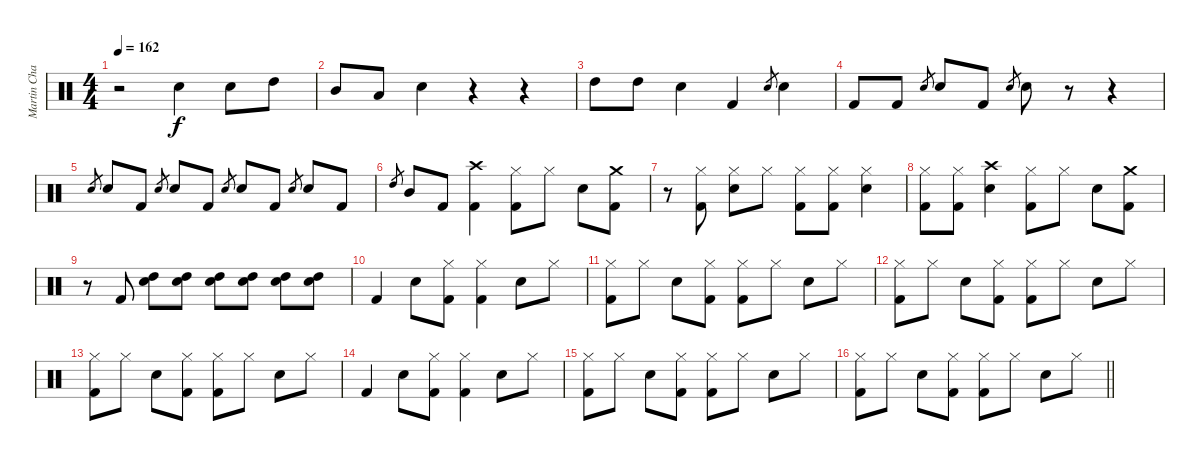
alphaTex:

\track ("Martin Chambers" "Martin Cha") {instrument percussion}
\staff {score}
\articulation defaults
\ts (4 4)
\tempo 162
\clef neutral
\ks c
r.2{dy f} "Snare (hit) 2".4 "Snare (hit) 2".8 "High Tom (hit)".8 |
"Mid Tom (hit)".8 "Low Tom (hit)".8 "Snare (hit) 2".4 r.4 r.4 |
"High Tom (hit)".8 "High Tom (hit)".8 "Snare (hit) 2".4 "Kick (hit) 2".4 "Snare (hit) 2".8{gr} "Snare (hit) 2".4 |
"Kick (hit) 2".8 "Kick (hit) 2".8 "Snare (hit) 2".8{gr} "Snare (hit) 2".8 "Kick (hit) 2".8 "Snare (hit) 2".8{gr} "Snare (hit) 2".8 r.8 r.4 |
"Snare (hit) 2".8{gr} "Snare (hit) 2".8 "Kick (hit) 2".8 "Snare (hit) 2".8{gr} "Snare (hit) 2".8 "Kick (hit) 2".8 "Snare (hit) 2".8{gr} "Snare (hit) 2".8 "Kick (hit) 2".8 "Snare (hit) 2".8{gr} "Snare (hit) 2".8 "Kick (hit) 2".8 |
"High Tom (hit)".8{gr} "Mid Tom (hit)".8 "Kick (hit) 2".8 ("Crash high (hit)" "Kick (hit) 2").4 ("Hi-Hat (closed)" "Kick (hit) 2").8 "Hi-Hat (closed)".8 "Snare (hit) 2".8 ("Crash medium (hit)" "Kick (hit) 2").8 |
r.8 ("Hi-Hat (closed)" "Kick (hit) 2").8 ("Hi-Hat (closed)" "Snare (hit) 2").8 "Hi-Hat (closed)".8 ("Hi-Hat (closed)" "Kick (hit) 2").8 ("Hi-Hat (closed)" "Kick (hit) 2").8 ("Hi-Hat (closed)" "Snare (hit) 2").4 |
("Hi-Hat (closed)" "Kick (hit) 2").8 ("Hi-Hat (closed)" "Kick (hit) 2").8 ("Crash high (hit)" "Snare (hit) 2").4 ("Hi-Hat (closed)" "Kick (hit) 2").8 "Hi-Hat (closed)".8 "Snare (hit) 2".8 ("Crash medium (hit)" "Kick (hit) 2").8 |
r.8 "Kick (hit) 2".8 ("High Tom (hit)" "Snare (hit) 2").8 ("High Tom (hit)" "Snare (hit) 2").8 ("High Tom (hit)" "Snare (hit) 2").8 ("High Tom (hit)" "Snare (hit) 2").8 ("High Tom (hit)" "Snare (hit) 2").8 ("High Tom (hit)" "Snare (hit) 2").8 |
"Kick (hit) 2".4 "Snare (hit) 2".8 ("Hi-Hat (closed)" "Kick (hit) 2").8 ("Hi-Hat (closed)" "Kick (hit) 2").4 "Snare (hit) 2".8 "Hi-Hat (closed)".8 |
("Hi-Hat (closed)" "Kick (hit) 2").8 "Hi-Hat (closed)".8 "Snare (hit) 2".8 ("Hi-Hat (closed)" "Kick (hit) 2").8 ("Hi-Hat (closed)" "Kick (hit) 2").8 "Hi-Hat (closed)".8 "Snare (hit) 2".8 "Hi-Hat (closed)".8 |
("Hi-Hat (closed)" "Kick (hit) 2").8 "Hi-Hat (closed)".8 "Snare (hit) 2".8 ("Hi-Hat (closed)" "Kick (hit) 2").8 ("Hi-Hat (closed)" "Kick (hit) 2").8 "Hi-Hat (closed)".8 "Snare (hit) 2".8 "Hi-Hat (closed)".8 |
("Hi-Hat (closed)" "Kick (hit) 2").8 "Hi-Hat (closed)".8 "Snare (hit) 2".8 ("Hi-Hat (closed)" "Kick (hit) 2").8 ("Hi-Hat (closed)" "Kick (hit) 2").8 "Hi-Hat (closed)".8 "Snare (hit) 2".8 "Hi-Hat (closed)".8 |
"Kick (hit) 2".4 "Snare (hit) 2".8 ("Hi-Hat (closed)" "Kick (hit) 2").8 ("Hi-Hat (closed)" "Kick (hit) 2").4 "Snare (hit) 2".8 "Hi-Hat (closed)".8 |
("Hi-Hat (closed)" "Kick (hit) 2").8 "Hi-Hat (closed)".8 "Snare (hit) 2".8 ("Hi-Hat (closed)" "Kick (hit) 2").8 ("Hi-Hat (closed)" "Kick (hit) 2").8 "Hi-Hat (closed)".8 "Snare (hit) 2".8 "Hi-Hat (closed)".8 |
\barLineRight lightlight
("Hi-Hat (closed)" "Kick (hit) 2").8 "Hi-Hat (closed)".8 "Snare (hit) 2".8 ("Hi-Hat (closed)" "Kick (hit) 2").8 ("Hi-Hat (closed)" "Kick (hit) 2").8 "Hi-Hat (closed)".8 "Snare (hit) 2".8 "Hi-Hat (closed)".8
